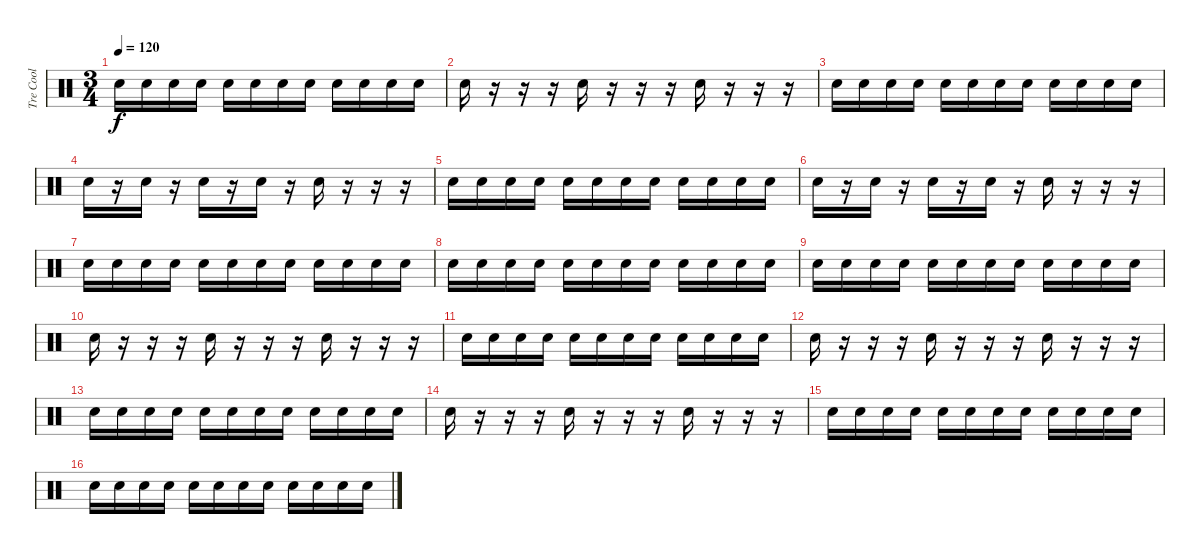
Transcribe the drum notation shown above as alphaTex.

\track ("Tre Cool" "Tre Cool") {instrument percussion}
\staff {score}
\articulation defaults
\ts (3 4)
\tempo 120
\clef neutral
\ks c "Snare (hit) 2".16{dy f} "Snare (hit) 2".16 "Snare (hit) 2".16 "Snare (hit) 2".16 "Snare (hit) 2".16 "Snare (hit) 2".16 "Snare (hit) 2".16 "Snare (hit) 2".16 "Snare (hit) 2".16 "Snare (hit) 2".16 "Snare (hit) 2".16 "Snare (hit) 2".16
|
"Snare (hit) 2".16 r.16 r.16 r.16 "Snare (hit) 2".16 r.16 r.16 r.16 "Snare (hit) 2".16 r.16 r.16 r.16 |
"Snare (hit) 2".16 "Snare (hit) 2".16 "Snare (hit) 2".16 "Snare (hit) 2".16 "Snare (hit) 2".16 "Snare (hit) 2".16 "Snare (hit) 2".16 "Snare (hit) 2".16 "Snare (hit) 2".16 "Snare (hit) 2".16 "Snare (hit) 2".16 "Snare (hit) 2".16 |
"Snare (hit) 2".16 r.16 "Snare (hit) 2".16 r.16 "Snare (hit) 2".16 r.16 "Snare (hit) 2".16 r.16 "Snare (hit) 2".16 r.16 r.16 r.16 |
"Snare (hit) 2".16 "Snare (hit) 2".16 "Snare (hit) 2".16 "Snare (hit) 2".16 "Snare (hit) 2".16 "Snare (hit) 2".16 "Snare (hit) 2".16 "Snare (hit) 2".16 "Snare (hit) 2".16 "Snare (hit) 2".16 "Snare (hit) 2".16 "Snare (hit) 2".16 |
"Snare (hit) 2".16 r.16 "Snare (hit) 2".16 r.16 "Snare (hit) 2".16 r.16 "Snare (hit) 2".16 r.16 "Snare (hit) 2".16 r.16 r.16 r.16 |
"Snare (hit) 2".16 "Snare (hit) 2".16 "Snare (hit) 2".16 "Snare (hit) 2".16 "Snare (hit) 2".16 "Snare (hit) 2".16 "Snare (hit) 2".16 "Snare (hit) 2".16 "Snare (hit) 2".16 "Snare (hit) 2".16 "Snare (hit) 2".16 "Snare (hit) 2".16 |
"Snare (hit) 2".16 "Snare (hit) 2".16 "Snare (hit) 2".16 "Snare (hit) 2".16 "Snare (hit) 2".16 "Snare (hit) 2".16 "Snare (hit) 2".16 "Snare (hit) 2".16 "Snare (hit) 2".16 "Snare (hit) 2".16 "Snare (hit) 2".16 "Snare (hit) 2".16 |
"Snare (hit) 2".16 "Snare (hit) 2".16 "Snare (hit) 2".16 "Snare (hit) 2".16 "Snare (hit) 2".16 "Snare (hit) 2".16 "Snare (hit) 2".16 "Snare (hit) 2".16 "Snare (hit) 2".16 "Snare (hit) 2".16 "Snare (hit) 2".16 "Snare (hit) 2".16 |
"Snare (hit) 2".16 r.16 r.16 r.16 "Snare (hit) 2".16 r.16 r.16 r.16 "Snare (hit) 2".16 r.16 r.16 r.16 |
"Snare (hit) 2".16 "Snare (hit) 2".16 "Snare (hit) 2".16 "Snare (hit) 2".16 "Snare (hit) 2".16 "Snare (hit) 2".16 "Snare (hit) 2".16 "Snare (hit) 2".16 "Snare (hit) 2".16 "Snare (hit) 2".16 "Snare (hit) 2".16 "Snare (hit) 2".16 |
"Snare (hit) 2".16 r.16 r.16 r.16 "Snare (hit) 2".16 r.16 r.16 r.16 "Snare (hit) 2".16 r.16 r.16 r.16 |
"Snare (hit) 2".16 "Snare (hit) 2".16 "Snare (hit) 2".16 "Snare (hit) 2".16 "Snare (hit) 2".16 "Snare (hit) 2".16 "Snare (hit) 2".16 "Snare (hit) 2".16 "Snare (hit) 2".16 "Snare (hit) 2".16 "Snare (hit) 2".16 "Snare (hit) 2".16 |
"Snare (hit) 2".16 r.16 r.16 r.16 "Snare (hit) 2".16 r.16 r.16 r.16 "Snare (hit) 2".16 r.16 r.16 r.16 |
"Snare (hit) 2".16 "Snare (hit) 2".16 "Snare (hit) 2".16 "Snare (hit) 2".16 "Snare (hit) 2".16 "Snare (hit) 2".16 "Snare (hit) 2".16 "Snare (hit) 2".16 "Snare (hit) 2".16 "Snare (hit) 2".16 "Snare (hit) 2".16 "Snare (hit) 2".16 |
"Snare (hit) 2".16 "Snare (hit) 2".16 "Snare (hit) 2".16 "Snare (hit) 2".16 "Snare (hit) 2".16 "Snare (hit) 2".16 "Snare (hit) 2".16 "Snare (hit) 2".16 "Snare (hit) 2".16 "Snare (hit) 2".16 "Snare (hit) 2".16 "Snare (hit) 2".16
